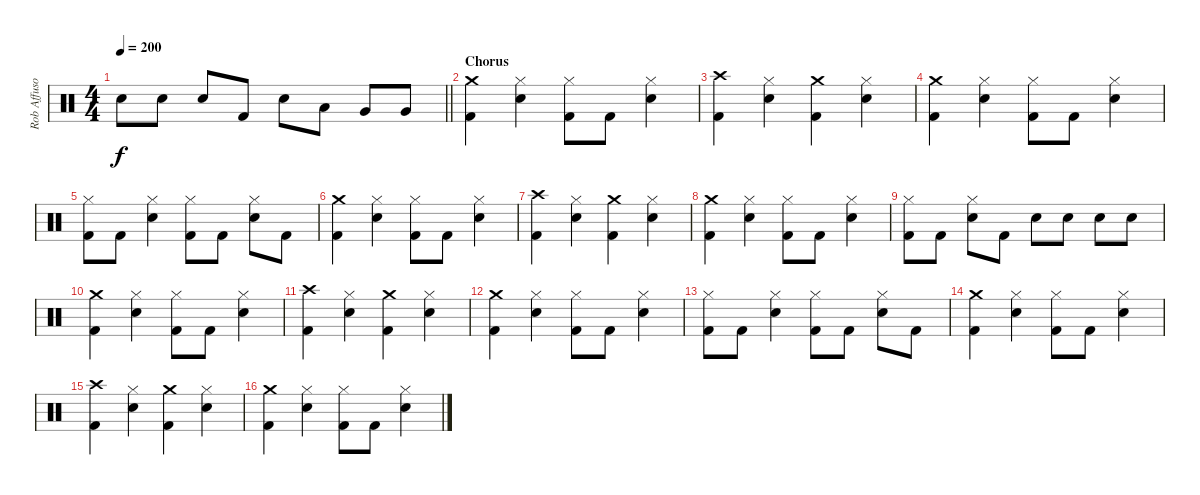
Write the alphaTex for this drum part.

\track ("Rob Affuso - Drums" "Rob Affuso") {instrument percussion}
\staff {score}
\articulation defaults
\ts (4 4)
\tempo 200
\clef neutral
\barLineRight lightlight
\ks c "Snare (hit)"{t}.8{dy f} "Snare (hit) 2".8 "Snare (hit) 2".8 "Kick (hit) 2".8 "Snare (hit) 2".8 "Low Tom (hit)".8 "Very Low Tom (hit)".8 "Very Low Tom (hit)".8
|
\section ("" "Chorus")
("Crash medium (hit)" "Kick (hit) 2").4 ("Hi-Hat (closed)" "Snare (hit) 2").4 ("Hi-Hat (closed)" "Kick (hit) 2").8 "Kick (hit) 2".8 ("Hi-Hat (closed)" "Snare (hit) 2").4 |
("Crash high (hit)" "Kick (hit) 2").4 ("Hi-Hat (closed)" "Snare (hit) 2").4 ("Crash medium (hit)" "Kick (hit) 2").4 ("Hi-Hat (closed)" "Snare (hit) 2").4 |
("Crash medium (hit)" "Kick (hit) 2").4 ("Hi-Hat (closed)" "Snare (hit) 2").4 ("Hi-Hat (closed)" "Kick (hit) 2").8 "Kick (hit) 2".8 ("Hi-Hat (closed)" "Snare (hit) 2").4 |
("Hi-Hat (closed)" "Kick (hit) 2").8 "Kick (hit) 2".8 ("Hi-Hat (closed)" "Snare (hit) 2").4 ("Hi-Hat (closed)" "Kick (hit) 2").8 "Kick (hit) 2".8 ("Hi-Hat (closed)" "Snare (hit) 2").8 "Kick (hit) 2".8 |
("Crash medium (hit)" "Kick (hit) 2").4 ("Hi-Hat (closed)" "Snare (hit) 2").4 ("Hi-Hat (closed)" "Kick (hit) 2").8 "Kick (hit) 2".8 ("Hi-Hat (closed)" "Snare (hit) 2").4 |
("Crash high (hit)" "Kick (hit) 2").4 ("Hi-Hat (closed)" "Snare (hit) 2").4 ("Crash medium (hit)" "Kick (hit) 2").4 ("Hi-Hat (closed)" "Snare (hit) 2").4 |
("Crash medium (hit)" "Kick (hit) 2").4 ("Hi-Hat (closed)" "Snare (hit) 2").4 ("Hi-Hat (closed)" "Kick (hit) 2").8 "Kick (hit) 2".8 ("Hi-Hat (closed)" "Snare (hit) 2").4 |
("Hi-Hat (closed)" "Kick (hit) 2").8 "Kick (hit) 2".8 ("Hi-Hat (closed)" "Snare (hit) 2").8 "Kick (hit) 2".8 "Snare (hit) 2".8 "Snare (hit) 2".8 "Snare (hit) 2".8 "Snare (hit) 2".8 |
("Crash medium (hit)" "Kick (hit) 2").4 ("Hi-Hat (closed)" "Snare (hit) 2").4 ("Hi-Hat (closed)" "Kick (hit) 2").8 "Kick (hit) 2".8 ("Hi-Hat (closed)" "Snare (hit) 2").4 |
("Crash high (hit)" "Kick (hit) 2").4 ("Hi-Hat (closed)" "Snare (hit) 2").4 ("Crash medium (hit)" "Kick (hit) 2").4 ("Hi-Hat (closed)" "Snare (hit) 2").4 |
("Crash medium (hit)" "Kick (hit) 2").4 ("Hi-Hat (closed)" "Snare (hit) 2").4 ("Hi-Hat (closed)" "Kick (hit) 2").8 "Kick (hit) 2".8 ("Hi-Hat (closed)" "Snare (hit) 2").4 |
("Hi-Hat (closed)" "Kick (hit) 2").8 "Kick (hit) 2".8 ("Hi-Hat (closed)" "Snare (hit) 2").4 ("Hi-Hat (closed)" "Kick (hit) 2").8 "Kick (hit) 2".8 ("Hi-Hat (closed)" "Snare (hit) 2").8 "Kick (hit) 2".8 |
("Crash medium (hit)" "Kick (hit) 2").4 ("Hi-Hat (closed)" "Snare (hit) 2").4 ("Hi-Hat (closed)" "Kick (hit) 2").8 "Kick (hit) 2".8 ("Hi-Hat (closed)" "Snare (hit) 2").4 |
("Crash high (hit)" "Kick (hit) 2").4 ("Hi-Hat (closed)" "Snare (hit) 2").4 ("Crash medium (hit)" "Kick (hit) 2").4 ("Hi-Hat (closed)" "Snare (hit) 2").4 |
("Crash medium (hit)" "Kick (hit) 2").4 ("Hi-Hat (closed)" "Snare (hit) 2").4 ("Hi-Hat (closed)" "Kick (hit) 2").8 "Kick (hit) 2".8 ("Hi-Hat (closed)" "Snare (hit) 2").4
